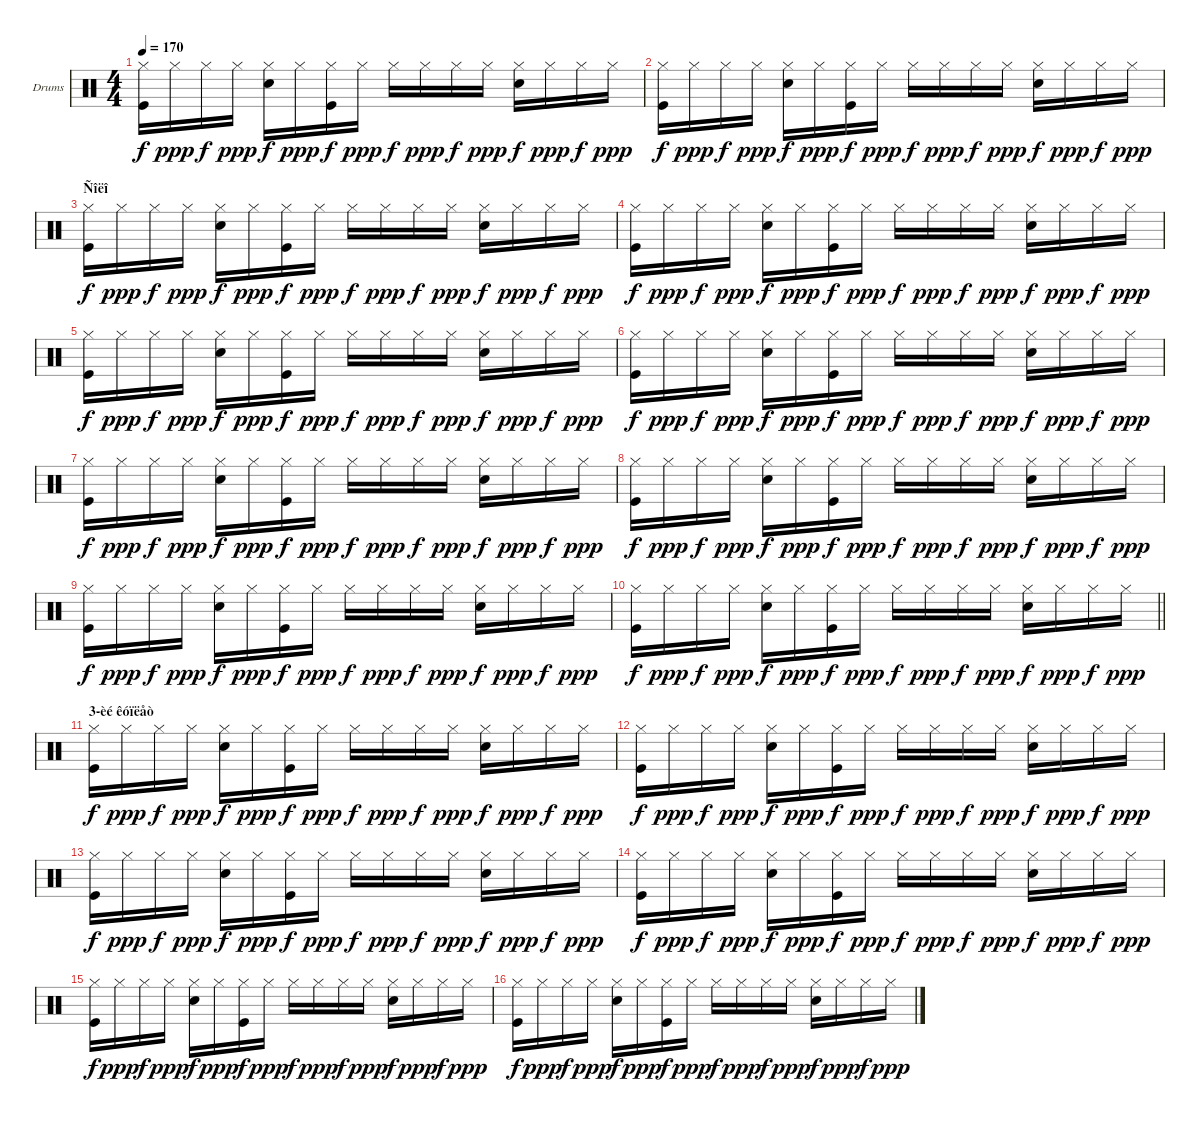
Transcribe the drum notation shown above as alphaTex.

\bracketExtendMode groupsimilarinstruments
\firstSystemTrackNameOrientation horizontal
\otherSystemsTrackNameOrientation horizontal
\track ("Drumkit" "Drums") {instrument percussion}
\staff {score}
\articulation defaults
\ts (4 4)
\tempo 170
\clef neutral
\ks c
("Hi-Hat (closed)" "Kick (hit)").16{dy f} "Hi-Hat (closed)".16{dy ppp} "Hi-Hat (closed)".16{dy f} "Hi-Hat (closed)".16{dy ppp} ("Hi-Hat (closed)" "Snare (hit) 2").16{dy f} "Hi-Hat (closed)".16{dy ppp} ("Hi-Hat (closed)" "Kick (hit)").16{dy f} "Hi-Hat (closed)".16{dy ppp} "Hi-Hat (closed)".16{dy f} "Hi-Hat (closed)".16{dy ppp} "Hi-Hat (closed)".16{dy f} "Hi-Hat (closed)".16{dy ppp} ("Hi-Hat (closed)" "Snare (hit) 2").16{dy f} "Hi-Hat (closed)".16{dy ppp} "Hi-Hat (closed)".16{dy f} "Hi-Hat (closed)".16{dy ppp} |
("Hi-Hat (closed)" "Kick (hit)").16{dy f} "Hi-Hat (closed)".16{dy ppp} "Hi-Hat (closed)".16{dy f} "Hi-Hat (closed)".16{dy ppp} ("Hi-Hat (closed)" "Snare (hit) 2").16{dy f} "Hi-Hat (closed)".16{dy ppp} ("Hi-Hat (closed)" "Kick (hit)").16{dy f} "Hi-Hat (closed)".16{dy ppp} "Hi-Hat (closed)".16{dy f} "Hi-Hat (closed)".16{dy ppp} "Hi-Hat (closed)".16{dy f} "Hi-Hat (closed)".16{dy ppp} ("Hi-Hat (closed)" "Snare (hit) 2").16{dy f} "Hi-Hat (closed)".16{dy ppp} "Hi-Hat (closed)".16{dy f} "Hi-Hat (closed)".16{dy ppp} |
\section ("" "Ñîëî")
("Hi-Hat (closed)" "Kick (hit)").16{dy f} "Hi-Hat (closed)".16{dy ppp} "Hi-Hat (closed)".16{dy f} "Hi-Hat (closed)".16{dy ppp} ("Hi-Hat (closed)" "Snare (hit) 2").16{dy f} "Hi-Hat (closed)".16{dy ppp} ("Hi-Hat (closed)" "Kick (hit)").16{dy f} "Hi-Hat (closed)".16{dy ppp} "Hi-Hat (closed)".16{dy f} "Hi-Hat (closed)".16{dy ppp} "Hi-Hat (closed)".16{dy f} "Hi-Hat (closed)".16{dy ppp} ("Hi-Hat (closed)" "Snare (hit) 2").16{dy f} "Hi-Hat (closed)".16{dy ppp} "Hi-Hat (closed)".16{dy f} "Hi-Hat (closed)".16{dy ppp} |
("Hi-Hat (closed)" "Kick (hit)").16{dy f} "Hi-Hat (closed)".16{dy ppp} "Hi-Hat (closed)".16{dy f} "Hi-Hat (closed)".16{dy ppp} ("Hi-Hat (closed)" "Snare (hit) 2").16{dy f} "Hi-Hat (closed)".16{dy ppp} ("Hi-Hat (closed)" "Kick (hit)").16{dy f} "Hi-Hat (closed)".16{dy ppp} "Hi-Hat (closed)".16{dy f} "Hi-Hat (closed)".16{dy ppp} "Hi-Hat (closed)".16{dy f} "Hi-Hat (closed)".16{dy ppp} ("Hi-Hat (closed)" "Snare (hit) 2").16{dy f} "Hi-Hat (closed)".16{dy ppp} "Hi-Hat (closed)".16{dy f} "Hi-Hat (closed)".16{dy ppp} |
("Hi-Hat (closed)" "Kick (hit)").16{dy f} "Hi-Hat (closed)".16{dy ppp} "Hi-Hat (closed)".16{dy f} "Hi-Hat (closed)".16{dy ppp} ("Hi-Hat (closed)" "Snare (hit) 2").16{dy f} "Hi-Hat (closed)".16{dy ppp} ("Hi-Hat (closed)" "Kick (hit)").16{dy f} "Hi-Hat (closed)".16{dy ppp} "Hi-Hat (closed)".16{dy f} "Hi-Hat (closed)".16{dy ppp} "Hi-Hat (closed)".16{dy f} "Hi-Hat (closed)".16{dy ppp} ("Hi-Hat (closed)" "Snare (hit) 2").16{dy f} "Hi-Hat (closed)".16{dy ppp} "Hi-Hat (closed)".16{dy f} "Hi-Hat (closed)".16{dy ppp} |
("Hi-Hat (closed)" "Kick (hit)").16{dy f} "Hi-Hat (closed)".16{dy ppp} "Hi-Hat (closed)".16{dy f} "Hi-Hat (closed)".16{dy ppp} ("Hi-Hat (closed)" "Snare (hit) 2").16{dy f} "Hi-Hat (closed)".16{dy ppp} ("Hi-Hat (closed)" "Kick (hit)").16{dy f} "Hi-Hat (closed)".16{dy ppp} "Hi-Hat (closed)".16{dy f} "Hi-Hat (closed)".16{dy ppp} "Hi-Hat (closed)".16{dy f} "Hi-Hat (closed)".16{dy ppp} ("Hi-Hat (closed)" "Snare (hit) 2").16{dy f} "Hi-Hat (closed)".16{dy ppp} "Hi-Hat (closed)".16{dy f} "Hi-Hat (closed)".16{dy ppp} |
("Hi-Hat (closed)" "Kick (hit)").16{dy f} "Hi-Hat (closed)".16{dy ppp} "Hi-Hat (closed)".16{dy f} "Hi-Hat (closed)".16{dy ppp} ("Hi-Hat (closed)" "Snare (hit) 2").16{dy f} "Hi-Hat (closed)".16{dy ppp} ("Hi-Hat (closed)" "Kick (hit)").16{dy f} "Hi-Hat (closed)".16{dy ppp} "Hi-Hat (closed)".16{dy f} "Hi-Hat (closed)".16{dy ppp} "Hi-Hat (closed)".16{dy f} "Hi-Hat (closed)".16{dy ppp} ("Hi-Hat (closed)" "Snare (hit) 2").16{dy f} "Hi-Hat (closed)".16{dy ppp} "Hi-Hat (closed)".16{dy f} "Hi-Hat (closed)".16{dy ppp} |
("Hi-Hat (closed)" "Kick (hit)").16{dy f} "Hi-Hat (closed)".16{dy ppp} "Hi-Hat (closed)".16{dy f} "Hi-Hat (closed)".16{dy ppp} ("Hi-Hat (closed)" "Snare (hit) 2").16{dy f} "Hi-Hat (closed)".16{dy ppp} ("Hi-Hat (closed)" "Kick (hit)").16{dy f} "Hi-Hat (closed)".16{dy ppp} "Hi-Hat (closed)".16{dy f} "Hi-Hat (closed)".16{dy ppp} "Hi-Hat (closed)".16{dy f} "Hi-Hat (closed)".16{dy ppp} ("Hi-Hat (closed)" "Snare (hit) 2").16{dy f} "Hi-Hat (closed)".16{dy ppp} "Hi-Hat (closed)".16{dy f} "Hi-Hat (closed)".16{dy ppp} |
("Hi-Hat (closed)" "Kick (hit)").16{dy f} "Hi-Hat (closed)".16{dy ppp} "Hi-Hat (closed)".16{dy f} "Hi-Hat (closed)".16{dy ppp} ("Hi-Hat (closed)" "Snare (hit) 2").16{dy f} "Hi-Hat (closed)".16{dy ppp} ("Hi-Hat (closed)" "Kick (hit)").16{dy f} "Hi-Hat (closed)".16{dy ppp} "Hi-Hat (closed)".16{dy f} "Hi-Hat (closed)".16{dy ppp} "Hi-Hat (closed)".16{dy f} "Hi-Hat (closed)".16{dy ppp} ("Hi-Hat (closed)" "Snare (hit) 2").16{dy f} "Hi-Hat (closed)".16{dy ppp} "Hi-Hat (closed)".16{dy f} "Hi-Hat (closed)".16{dy ppp} |
\barLineRight lightlight
("Hi-Hat (closed)" "Kick (hit)").16{dy f} "Hi-Hat (closed)".16{dy ppp} "Hi-Hat (closed)".16{dy f} "Hi-Hat (closed)".16{dy ppp} ("Hi-Hat (closed)" "Snare (hit) 2").16{dy f} "Hi-Hat (closed)".16{dy ppp} ("Hi-Hat (closed)" "Kick (hit)").16{dy f} "Hi-Hat (closed)".16{dy ppp} "Hi-Hat (closed)".16{dy f} "Hi-Hat (closed)".16{dy ppp} "Hi-Hat (closed)".16{dy f} "Hi-Hat (closed)".16{dy ppp} ("Hi-Hat (closed)" "Snare (hit) 2").16{dy f} "Hi-Hat (closed)".16{dy ppp} "Hi-Hat (closed)".16{dy f} "Hi-Hat (closed)".16{dy ppp} |
\section ("" "3-èé êóïëåò")
("Hi-Hat (closed)" "Kick (hit)").16{dy f} "Hi-Hat (closed)".16{dy ppp} "Hi-Hat (closed)".16{dy f} "Hi-Hat (closed)".16{dy ppp} ("Hi-Hat (closed)" "Snare (hit) 2").16{dy f} "Hi-Hat (closed)".16{dy ppp} ("Hi-Hat (closed)" "Kick (hit)").16{dy f} "Hi-Hat (closed)".16{dy ppp} "Hi-Hat (closed)".16{dy f} "Hi-Hat (closed)".16{dy ppp} "Hi-Hat (closed)".16{dy f} "Hi-Hat (closed)".16{dy ppp} ("Hi-Hat (closed)" "Snare (hit) 2").16{dy f} "Hi-Hat (closed)".16{dy ppp} "Hi-Hat (closed)".16{dy f} "Hi-Hat (closed)".16{dy ppp} |
("Hi-Hat (closed)" "Kick (hit)").16{dy f} "Hi-Hat (closed)".16{dy ppp} "Hi-Hat (closed)".16{dy f} "Hi-Hat (closed)".16{dy ppp} ("Hi-Hat (closed)" "Snare (hit) 2").16{dy f} "Hi-Hat (closed)".16{dy ppp} ("Hi-Hat (closed)" "Kick (hit)").16{dy f} "Hi-Hat (closed)".16{dy ppp} "Hi-Hat (closed)".16{dy f} "Hi-Hat (closed)".16{dy ppp} "Hi-Hat (closed)".16{dy f} "Hi-Hat (closed)".16{dy ppp} ("Hi-Hat (closed)" "Snare (hit) 2").16{dy f} "Hi-Hat (closed)".16{dy ppp} "Hi-Hat (closed)".16{dy f} "Hi-Hat (closed)".16{dy ppp} |
("Hi-Hat (closed)" "Kick (hit)").16{dy f} "Hi-Hat (closed)".16{dy ppp} "Hi-Hat (closed)".16{dy f} "Hi-Hat (closed)".16{dy ppp} ("Hi-Hat (closed)" "Snare (hit) 2").16{dy f} "Hi-Hat (closed)".16{dy ppp} ("Hi-Hat (closed)" "Kick (hit)").16{dy f} "Hi-Hat (closed)".16{dy ppp} "Hi-Hat (closed)".16{dy f} "Hi-Hat (closed)".16{dy ppp} "Hi-Hat (closed)".16{dy f} "Hi-Hat (closed)".16{dy ppp} ("Hi-Hat (closed)" "Snare (hit) 2").16{dy f} "Hi-Hat (closed)".16{dy ppp} "Hi-Hat (closed)".16{dy f} "Hi-Hat (closed)".16{dy ppp} |
("Hi-Hat (closed)" "Kick (hit)").16{dy f} "Hi-Hat (closed)".16{dy ppp} "Hi-Hat (closed)".16{dy f} "Hi-Hat (closed)".16{dy ppp} ("Hi-Hat (closed)" "Snare (hit) 2").16{dy f} "Hi-Hat (closed)".16{dy ppp} ("Hi-Hat (closed)" "Kick (hit)").16{dy f} "Hi-Hat (closed)".16{dy ppp} "Hi-Hat (closed)".16{dy f} "Hi-Hat (closed)".16{dy ppp} "Hi-Hat (closed)".16{dy f} "Hi-Hat (closed)".16{dy ppp} ("Hi-Hat (closed)" "Snare (hit) 2").16{dy f} "Hi-Hat (closed)".16{dy ppp} "Hi-Hat (closed)".16{dy f} "Hi-Hat (closed)".16{dy ppp} |
("Hi-Hat (closed)" "Kick (hit)").16{dy f} "Hi-Hat (closed)".16{dy ppp} "Hi-Hat (closed)".16{dy f} "Hi-Hat (closed)".16{dy ppp} ("Hi-Hat (closed)" "Snare (hit) 2").16{dy f} "Hi-Hat (closed)".16{dy ppp} ("Hi-Hat (closed)" "Kick (hit)").16{dy f} "Hi-Hat (closed)".16{dy ppp} "Hi-Hat (closed)".16{dy f} "Hi-Hat (closed)".16{dy ppp} "Hi-Hat (closed)".16{dy f} "Hi-Hat (closed)".16{dy ppp} ("Hi-Hat (closed)" "Snare (hit) 2").16{dy f} "Hi-Hat (closed)".16{dy ppp} "Hi-Hat (closed)".16{dy f} "Hi-Hat (closed)".16{dy ppp} |
("Hi-Hat (closed)" "Kick (hit)").16{dy f} "Hi-Hat (closed)".16{dy ppp} "Hi-Hat (closed)".16{dy f} "Hi-Hat (closed)".16{dy ppp} ("Hi-Hat (closed)" "Snare (hit) 2").16{dy f} "Hi-Hat (closed)".16{dy ppp} ("Hi-Hat (closed)" "Kick (hit)").16{dy f} "Hi-Hat (closed)".16{dy ppp} "Hi-Hat (closed)".16{dy f} "Hi-Hat (closed)".16{dy ppp} "Hi-Hat (closed)".16{dy f} "Hi-Hat (closed)".16{dy ppp} ("Hi-Hat (closed)" "Snare (hit) 2").16{dy f} "Hi-Hat (closed)".16{dy ppp} "Hi-Hat (closed)".16{dy f} "Hi-Hat (closed)".16{dy ppp}
